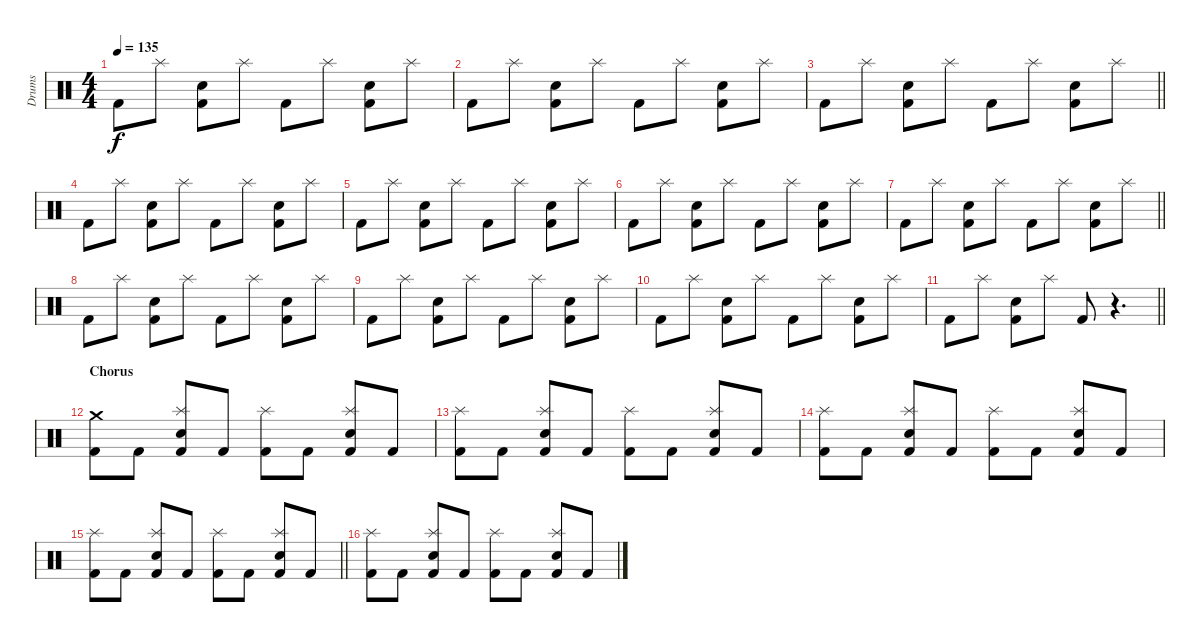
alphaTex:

\track ("Drums" "Drums") {instrument percussion}
\staff {score}
\articulation defaults
\ts (4 4)
\tempo 135
\clef neutral
\ks c "Kick (hit) 2".8{dy f} "Splash (hit)".8
("Kick (hit) 2" "Snare (hit) 2").8 "Splash (hit)".8 "Kick (hit) 2".8 "Splash (hit)".8 ("Kick (hit) 2" "Snare (hit) 2").8 "Splash (hit)".8 |
"Kick (hit) 2".8 "Splash (hit)".8 ("Kick (hit) 2" "Snare (hit) 2").8 "Splash (hit)".8 "Kick (hit) 2".8 "Splash (hit)".8 ("Kick (hit) 2" "Snare (hit) 2").8 "Splash (hit)".8 |
\barLineRight lightlight "Kick (hit) 2".8 "Splash (hit)".8
("Kick (hit) 2" "Snare (hit) 2").8 "Splash (hit)".8 "Kick (hit) 2".8 "Splash (hit)".8 ("Kick (hit) 2" "Snare (hit) 2").8 "Splash (hit)".8 |
\section ("" "")
"Kick (hit) 2".8 "Splash (hit)".8 ("Kick (hit) 2" "Snare (hit) 2").8 "Splash (hit)".8 "Kick (hit) 2".8 "Splash (hit)".8 ("Kick (hit) 2" "Snare (hit) 2").8 "Splash (hit)".8 |
"Kick (hit) 2".8 "Splash (hit)".8 ("Kick (hit) 2" "Snare (hit) 2").8 "Splash (hit)".8 "Kick (hit) 2".8 "Splash (hit)".8 ("Kick (hit) 2" "Snare (hit) 2").8 "Splash (hit)".8 |
"Kick (hit) 2".8 "Splash (hit)".8 ("Kick (hit) 2" "Snare (hit) 2").8 "Splash (hit)".8 "Kick (hit) 2".8 "Splash (hit)".8 ("Kick (hit) 2" "Snare (hit) 2").8 "Splash (hit)".8 |
\barLineRight lightlight "Kick (hit) 2".8 "Splash (hit)".8
("Kick (hit) 2" "Snare (hit) 2").8 "Splash (hit)".8 "Kick (hit) 2".8 "Splash (hit)".8 ("Kick (hit) 2" "Snare (hit) 2").8 "Splash (hit)".8 |
\section ("" "")
"Kick (hit) 2".8 "Splash (hit)".8 ("Kick (hit) 2" "Snare (hit) 2").8 "Splash (hit)".8 "Kick (hit) 2".8 "Splash (hit)".8 ("Kick (hit) 2" "Snare (hit) 2").8 "Splash (hit)".8 |
"Kick (hit) 2".8 "Splash (hit)".8 ("Kick (hit) 2" "Snare (hit) 2").8 "Splash (hit)".8 "Kick (hit) 2".8 "Splash (hit)".8 ("Kick (hit) 2" "Snare (hit) 2").8 "Splash (hit)".8 |
"Kick (hit) 2".8 "Splash (hit)".8 ("Kick (hit) 2" "Snare (hit) 2").8 "Splash (hit)".8 "Kick (hit) 2".8 "Splash (hit)".8 ("Kick (hit) 2" "Snare (hit) 2").8 "Splash (hit)".8 |
\barLineRight lightlight "Kick (hit) 2".8 "Splash (hit)".8
("Kick (hit) 2" "Snare (hit) 2").8 "Splash (hit)".8 "Kick (hit) 2".8 r.4{d} |
\section ("" "Chorus")
("Kick (hit) 2" "Crash medium (hit)").8 "Kick (hit) 2".8 ("Kick (hit) 2" "Snare (hit) 2" "Splash (hit)").8 "Kick (hit) 2".8 ("Kick (hit) 2" "Splash (hit)").8 "Kick (hit) 2".8 ("Kick (hit) 2" "Snare (hit) 2" "Splash (hit)").8 "Kick (hit) 2".8 |
("Kick (hit) 2" "Splash (hit)").8 "Kick (hit) 2".8 ("Kick (hit) 2" "Snare (hit) 2" "Splash (hit)").8 "Kick (hit) 2".8 ("Kick (hit) 2" "Splash (hit)").8 "Kick (hit) 2".8 ("Kick (hit) 2" "Snare (hit) 2" "Splash (hit)").8 "Kick (hit) 2".8 |
("Kick (hit) 2" "Splash (hit)").8 "Kick (hit) 2".8 ("Kick (hit) 2" "Snare (hit) 2" "Splash (hit)").8 "Kick (hit) 2".8 ("Kick (hit) 2" "Splash (hit)").8 "Kick (hit) 2".8 ("Kick (hit) 2" "Snare (hit) 2" "Splash (hit)").8 "Kick (hit) 2".8 |
\barLineRight lightlight
("Kick (hit) 2" "Splash (hit)").8 "Kick (hit) 2".8 ("Kick (hit) 2" "Snare (hit) 2" "Splash (hit)").8 "Kick (hit) 2".8 ("Kick (hit) 2" "Splash (hit)").8 "Kick (hit) 2".8 ("Kick (hit) 2" "Snare (hit) 2" "Splash (hit)").8 "Kick (hit) 2".8 |
\section ("" "")
("Kick (hit) 2" "Splash (hit)").8 "Kick (hit) 2".8 ("Kick (hit) 2" "Snare (hit) 2" "Splash (hit)").8 "Kick (hit) 2".8 ("Kick (hit) 2" "Splash (hit)").8 "Kick (hit) 2".8 ("Kick (hit) 2" "Snare (hit) 2" "Splash (hit)").8 "Kick (hit) 2".8
